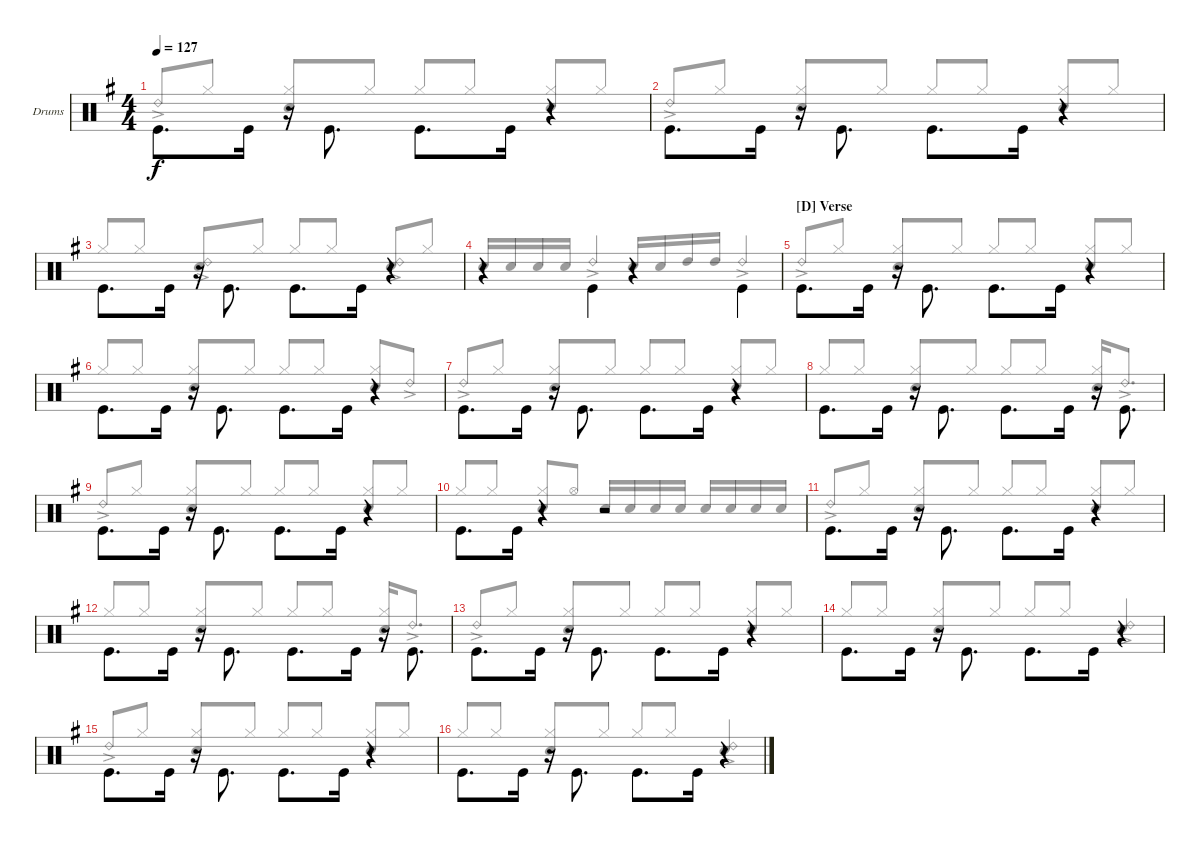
\defaultSystemsLayout 4
\bracketExtendMode groupsimilarinstruments
\firstSystemTrackNameOrientation horizontal
\otherSystemsTrackNameOrientation horizontal
\track ("Drums" "Drums") {instrument percussion}
\staff {score}
\articulation defaults
\voice
\ts (4 4)
\tempo 127
\clef neutral
\scale
1.02648
\ks g "Kick (hit)".8{d dy f beam invert} "Kick (hit)".16
r.16{beam invert} "Kick (hit)".8{d beam invert} "Kick (hit)".8{d beam invert} "Kick (hit)".16 r.4 |
\scale
0.973518 "Kick (hit)".8{d beam invert} "Kick (hit)".16 r.16{beam invert} "Kick (hit)".8{d beam invert} "Kick (hit)".8{d beam invert} "Kick (hit)".16 r.4 |
\scale
1.02648 "Kick (hit)".8{d beam invert} "Kick (hit)".16 r.16{beam invert} "Kick (hit)".8{d beam invert} "Kick (hit)".8{d beam invert} "Kick (hit)".16 r.4 |
\scale
0.973518 r.4 "Kick (hit)".4{beam invert} r.4 "Kick (hit)".4{beam invert} |
\section ("D" "Verse")
\scale
1.02648 "Kick (hit)".8{d beam invert} "Kick (hit)".16 r.16{beam invert} "Kick (hit)".8{d beam invert} "Kick (hit)".8{d beam invert} "Kick (hit)".16 r.4 |
\scale
0.973518 "Kick (hit)".8{d beam invert} "Kick (hit)".16 r.16{beam invert} "Kick (hit)".8{d beam invert} "Kick (hit)".8{d beam invert} "Kick (hit)".16 r.4 |
\scale
1.02648 "Kick (hit)".8{d beam invert} "Kick (hit)".16 r.16{beam invert} "Kick (hit)".8{d beam invert} "Kick (hit)".8{d beam invert} "Kick (hit)".16 r.4 |
\scale
0.973518 "Kick (hit)".8{d beam invert} "Kick (hit)".16 r.16{beam invert} "Kick (hit)".8{d beam invert} "Kick (hit)".8{d beam invert} "Kick (hit)".16 r.16{beam invert} "Kick (hit)".8{d beam invert} |
\scale
1.02648 "Kick (hit)".8{d beam invert} "Kick (hit)".16 r.16{beam invert} "Kick (hit)".8{d beam invert} "Kick (hit)".8{d beam invert} "Kick (hit)".16 r.4 |
\scale
0.973518 "Kick (hit)".8{d beam invert} "Kick (hit)".16 r.4 r.2 |
\scale
1.02648 "Kick (hit)".8{d beam invert} "Kick (hit)".16 r.16{beam invert} "Kick (hit)".8{d beam invert} "Kick (hit)".8{d beam invert} "Kick (hit)".16 r.4 |
\scale
0.973518 "Kick (hit)".8{d beam invert} "Kick (hit)".16 r.16{beam invert} "Kick (hit)".8{d beam invert} "Kick (hit)".8{d beam invert} "Kick (hit)".16 r.16{beam invert} "Kick (hit)".8{d beam invert} |
\scale
1.02648 "Kick (hit)".8{d beam invert} "Kick (hit)".16 r.16{beam invert} "Kick (hit)".8{d beam invert} "Kick (hit)".8{d beam invert} "Kick (hit)".16 r.4 |
\scale
0.973518 "Kick (hit)".8{d beam invert} "Kick (hit)".16 r.16{beam invert} "Kick (hit)".8{d beam invert} "Kick (hit)".8{d beam invert} "Kick (hit)".16 r.4 |
\scale
1.02648 "Kick (hit)".8{d beam invert} "Kick (hit)".16 r.16{beam invert} "Kick (hit)".8{d beam invert} "Kick (hit)".8{d beam invert} "Kick (hit)".16 r.4 |
\scale
0.973518 "Kick (hit)".8{d beam invert} "Kick (hit)".16 r.16{beam invert} "Kick (hit)".8{d beam invert} "Kick (hit)".8{d beam invert} "Kick (hit)".16 r.4
\voice
\clef neutral
\ottava regular
\simile none
\scale
1.02648
\ks g "Ride (bell) 2"{ac}.8{dy f beam invert} "Hi-Hat (closed)".8
("Hi-Hat (closed)" "Snare (hit) 2").8{beam invert} "Hi-Hat (closed)".8 "Hi-Hat (closed)".8{beam invert} "Hi-Hat (closed)".8 ("Hi-Hat (closed)" "Snare (hit) 2").8{beam invert} "Hi-Hat (closed)".8 |
\scale
0.973518 "Ride (bell) 2"{ac}.8{beam invert} "Hi-Hat (closed)".8 ("Hi-Hat (closed)" "Snare (hit) 2").8{beam invert} "Hi-Hat (closed)".8 "Hi-Hat (closed)".8{beam invert} "Hi-Hat (closed)".8 ("Hi-Hat (closed)" "Snare (hit) 2").8{beam invert} "Hi-Hat (closed)".8 |
\scale
1.02648 "Hi-Hat (closed)".8{beam invert} "Hi-Hat (closed)".8 ("Snare (hit) 2" "Ride (bell) 2"{ac}).8{beam invert} "Hi-Hat (closed)".8 "Hi-Hat (closed)".8{beam invert} "Hi-Hat (closed)".8 ("Snare (hit) 2" "Ride (bell) 2"{ac}).8{beam invert} "Hi-Hat (closed)".8 |
\scale
0.973518 "Snare (hit) 2".16{beam invert} "Snare (hit) 2".16 "Snare (hit) 2".16 "Snare (hit) 2".16 "Ride (bell) 2"{ac}.4{beam invert} "Snare (hit) 2".16{beam invert} "Snare (hit) 2".16 "High Tom (hit)".16 "High Tom (hit)".16 "Ride (bell) 2"{ac}.4{beam invert} |
\scale
1.02648 "Ride (bell) 2"{ac}.8{beam invert} "Hi-Hat (closed)".8 ("Hi-Hat (closed)" "Snare (hit) 2").8{beam invert} "Hi-Hat (closed)".8 "Hi-Hat (closed)".8{beam invert} "Hi-Hat (closed)".8 ("Hi-Hat (closed)" "Snare (hit) 2").8{beam invert} "Hi-Hat (closed)".8 |
\scale
0.973518 "Hi-Hat (closed)".8{beam invert} "Hi-Hat (closed)".8 ("Hi-Hat (closed)" "Snare (hit) 2").8{beam invert} "Hi-Hat (closed)".8 "Hi-Hat (closed)".8{beam invert} "Hi-Hat (closed)".8 ("Hi-Hat (closed)" "Snare (hit) 2").8{beam invert} "Ride (bell) 2"{ac}.8 |
\scale
1.02648 "Ride (bell) 2"{ac}.8{beam invert} "Hi-Hat (closed)".8 ("Hi-Hat (closed)" "Snare (hit) 2").8{beam invert} "Hi-Hat (closed)".8 "Hi-Hat (closed)".8{beam invert} "Hi-Hat (closed)".8 ("Hi-Hat (closed)" "Snare (hit) 2").8{beam invert} "Hi-Hat (closed)".8 |
\scale
0.973518 "Hi-Hat (closed)".8{beam invert} "Hi-Hat (closed)".8 ("Hi-Hat (closed)" "Snare (hit) 2").8{beam invert} "Hi-Hat (closed)".8 "Hi-Hat (closed)".8{beam invert} "Hi-Hat (closed)".8 ("Hi-Hat (closed)" "Snare (hit) 2").16{beam invert} "Ride (bell) 2"{ac}.8{d} |
\scale
1.02648 "Ride (bell) 2"{ac}.8{beam invert} "Hi-Hat (closed)".8 ("Hi-Hat (closed)" "Snare (hit) 2").8{beam invert} "Hi-Hat (closed)".8 "Hi-Hat (closed)".8{beam invert} "Hi-Hat (closed)".8 ("Hi-Hat (closed)" "Snare (hit) 2").8{beam invert} "Hi-Hat (closed)".8 |
\scale
0.973518 "Hi-Hat (closed)".8{beam invert} "Hi-Hat (closed)".8 ("Hi-Hat (closed)" "Snare (hit) 2").8{beam invert} "Hi-Hat (open)".8 "Snare (hit) 2".16 "Snare (hit) 2".16 "Snare (hit) 2".16{beam invert} "Snare (hit) 2".16 "Snare (hit) 2".16{beam invert} "Snare (hit) 2".16 "Snare (hit) 2".16 "Snare (hit) 2".16 |
\scale
1.02648 "Ride (bell) 2"{ac}.8{beam invert} "Hi-Hat (closed)".8 ("Hi-Hat (closed)" "Snare (hit) 2").8{beam invert} "Hi-Hat (closed)".8 "Hi-Hat (closed)".8{beam invert} "Hi-Hat (closed)".8 ("Hi-Hat (closed)" "Snare (hit) 2").8{beam invert} "Hi-Hat (closed)".8 |
\scale
0.973518 "Hi-Hat (closed)".8{beam invert} "Hi-Hat (closed)".8 ("Hi-Hat (closed)" "Snare (hit) 2").8{beam invert} "Hi-Hat (closed)".8 "Hi-Hat (closed)".8{beam invert} "Hi-Hat (closed)".8 ("Hi-Hat (closed)" "Snare (hit) 2").16{beam invert} "Ride (bell) 2"{ac}.8{d} |
\scale
1.02648 "Ride (bell) 2"{ac}.8{beam invert} "Hi-Hat (closed)".8 ("Hi-Hat (closed)" "Snare (hit) 2").8{beam invert} "Hi-Hat (closed)".8 "Hi-Hat (closed)".8{beam invert} "Hi-Hat (closed)".8 ("Hi-Hat (closed)" "Snare (hit) 2").8{beam invert} "Hi-Hat (closed)".8 |
\scale
0.973518 "Hi-Hat (closed)".8{beam invert} "Hi-Hat (closed)".8 ("Hi-Hat (closed)" "Snare (hit) 2").8{beam invert} "Hi-Hat (closed)".8 "Hi-Hat (closed)".8{beam invert} "Hi-Hat (closed)".8 ("Ride (bell) 2"{ac} "Snare (hit) 2").4{beam invert} |
\scale
1.02648 "Ride (bell) 2"{ac}.8{beam invert} "Hi-Hat (closed)".8 ("Hi-Hat (closed)" "Snare (hit) 2").8{beam invert} "Hi-Hat (closed)".8 "Hi-Hat (closed)".8{beam invert} "Hi-Hat (closed)".8 ("Hi-Hat (closed)" "Snare (hit) 2").8{beam invert} "Hi-Hat (closed)".8 |
\scale
0.973518 "Hi-Hat (closed)".8{beam invert} "Hi-Hat (closed)".8 ("Hi-Hat (closed)" "Snare (hit) 2").8{beam invert} "Hi-Hat (closed)".8 "Hi-Hat (closed)".8{beam invert} "Hi-Hat (closed)".8 ("Ride (bell) 2"{ac} "Snare (hit) 2").4{beam invert}
